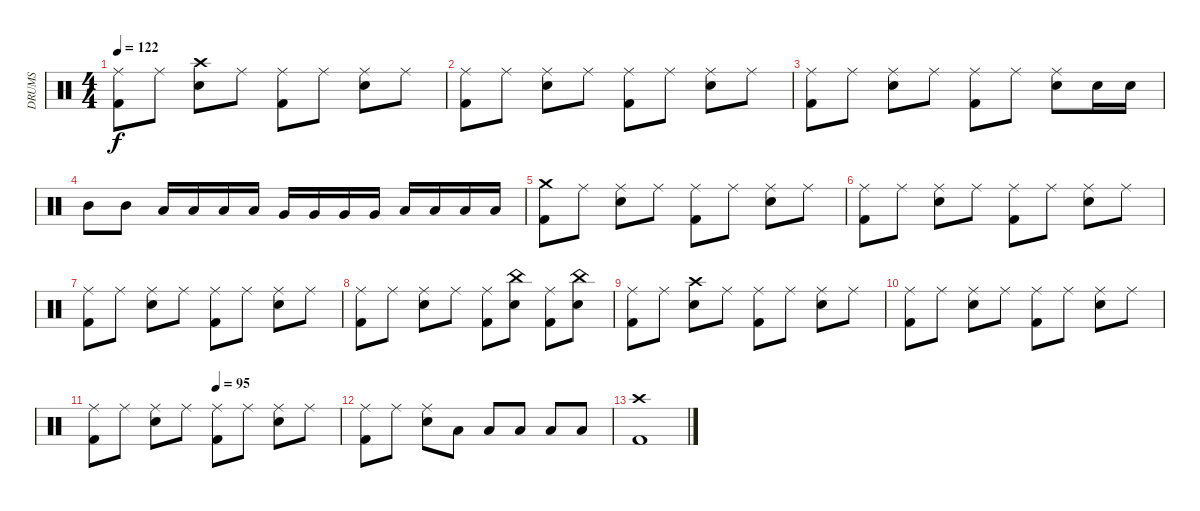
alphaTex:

\track ("DRUMS" "DRUMS") {instrument percussion}
\staff {score}
\articulation defaults
\ts (4 4)
\tempo 122
\clef neutral
\ks c
("Ride (middle)" "Kick (hit) 2").8{dy f} "Ride (middle)".8 ("Crash high (hit)" "Snare (hit) 2").8 "Ride (middle)".8 ("Ride (middle)" "Kick (hit) 2").8 "Ride (middle)".8 ("Ride (middle)" "Snare (hit) 2").8 "Ride (middle)".8 |
("Ride (middle)" "Kick (hit) 2").8 "Ride (middle)".8 ("Ride (middle)" "Snare (hit) 2").8 "Ride (middle)".8 ("Ride (middle)" "Kick (hit) 2").8 "Ride (middle)".8 ("Ride (middle)" "Snare (hit) 2").8 "Ride (middle)".8 |
("Ride (middle)" "Kick (hit) 2").8 "Ride (middle)".8 ("Ride (middle)" "Snare (hit) 2").8 "Ride (middle)".8 ("Ride (middle)" "Kick (hit) 2").8 "Ride (middle)".8 ("Ride (middle)" "Snare (hit) 2").8 "Snare (hit) 2".16 "Snare (hit) 2".16 |
"Mid Tom (hit)".8 "Mid Tom (hit)".8 "Low Tom (hit)".16 "Low Tom (hit)".16 "Low Tom (hit)".16 "Low Tom (hit)".16 "Very Low Tom (hit)".16 "Very Low Tom (hit)".16 "Very Low Tom (hit)".16 "Very Low Tom (hit)".16 "Low Floor Tom (hit)".16 "Low Floor Tom (hit)".16 "Low Floor Tom (hit)".16 "Low Floor Tom (hit)".16 |
("Crash medium (hit)" "Kick (hit) 2").8 "Ride (middle)".8 ("Ride (middle)" "Snare (hit) 2").8 "Ride (middle)".8 ("Ride (middle)" "Kick (hit) 2").8 "Ride (middle)".8 ("Ride (middle)" "Snare (hit) 2").8 "Ride (middle)".8 |
("Ride (middle)" "Kick (hit) 2").8 "Ride (middle)".8 ("Ride (middle)" "Snare (hit) 2").8 "Ride (middle)".8 ("Ride (middle)" "Kick (hit) 2").8 "Ride (middle)".8 ("Ride (middle)" "Snare (hit) 2").8 "Ride (middle)".8 |
("Ride (middle)" "Kick (hit) 2").8 "Ride (middle)".8 ("Ride (middle)" "Snare (hit) 2").8 "Ride (middle)".8 ("Ride (middle)" "Kick (hit) 2").8 "Ride (middle)".8 ("Ride (middle)" "Snare (hit) 2").8 "Ride (middle)".8 |
("Ride (middle)" "Kick (hit) 2").8 "Ride (middle)".8 ("Ride (middle)" "Snare (hit) 2").8 "Ride (middle)".8 ("Ride (middle)" "Kick (hit) 2").8 ("China (hit)" "Snare (hit) 2").8 ("Ride (middle)" "Kick (hit) 2").8 ("China (hit)" "Snare (hit) 2").8 |
("Ride (middle)" "Kick (hit) 2").8 "Ride (middle)".8 ("Crash high (hit)" "Snare (hit) 2").8 "Ride (middle)".8 ("Ride (middle)" "Kick (hit) 2").8 "Ride (middle)".8 ("Ride (middle)" "Snare (hit) 2").8 "Ride (middle)".8 |
("Ride (middle)" "Kick (hit) 2").8 "Ride (middle)".8 ("Ride (middle)" "Snare (hit) 2").8 "Ride (middle)".8 ("Ride (middle)" "Kick (hit) 2").8 "Ride (middle)".8 ("Ride (middle)" "Snare (hit) 2").8 "Ride (middle)".8 |
\tempo (95 0.5)
("Ride (middle)" "Kick (hit) 2").8 "Ride (middle)".8 ("Ride (middle)" "Snare (hit) 2").8 "Ride (middle)".8 ("Ride (middle)" "Kick (hit) 2").8 "Ride (middle)".8 ("Ride (middle)" "Snare (hit) 2").8 "Ride (middle)".8 |
("Ride (middle)" "Kick (hit) 2").8 "Ride (middle)".8 ("Ride (middle)" "Snare (hit) 2").8 "Low Floor Tom (hit)".8 "Low Floor Tom (hit)".8 "Low Floor Tom (hit)".8 "Low Floor Tom (hit)".8 "Low Floor Tom (hit)".8 |
("Crash high (hit)" "Kick (hit) 2").1
